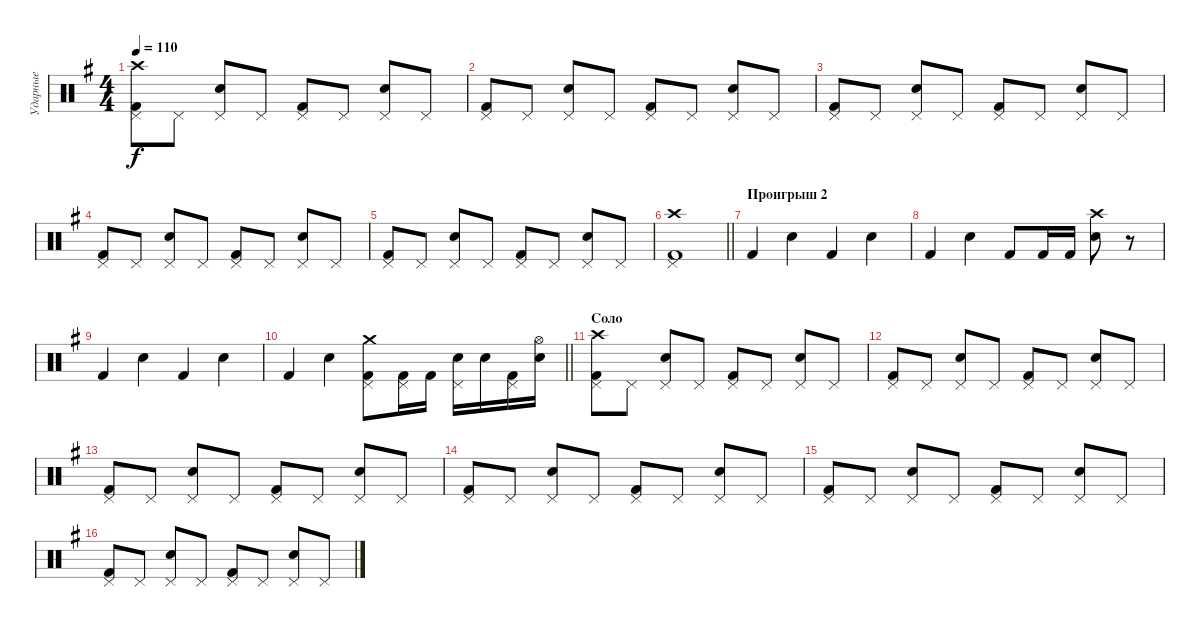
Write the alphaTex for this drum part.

\track ("Ударные" "Ударные") {instrument percussion}
\staff {score}
\articulation defaults
\ts (4 4)
\tempo 110
\clef neutral
\ks eminor
("Crash high (hit)" "Kick (hit) 2" "Pedal Hi-Hat (hit)").8{dy f} "Pedal Hi-Hat (hit)".8 ("Pedal Hi-Hat (hit)" "Snare (hit) 2").8 "Pedal Hi-Hat (hit)".8 ("Pedal Hi-Hat (hit)" "Kick (hit) 2").8 "Pedal Hi-Hat (hit)".8 ("Pedal Hi-Hat (hit)" "Snare (hit) 2").8 "Pedal Hi-Hat (hit)".8 |
("Kick (hit) 2" "Pedal Hi-Hat (hit)").8 "Pedal Hi-Hat (hit)".8 ("Snare (hit) 2" "Pedal Hi-Hat (hit)").8 "Pedal Hi-Hat (hit)".8 ("Kick (hit) 2" "Pedal Hi-Hat (hit)").8 "Pedal Hi-Hat (hit)".8 ("Snare (hit) 2" "Pedal Hi-Hat (hit)").8 "Pedal Hi-Hat (hit)".8 |
("Kick (hit) 2" "Pedal Hi-Hat (hit)").8 "Pedal Hi-Hat (hit)".8 ("Snare (hit) 2" "Pedal Hi-Hat (hit)").8 "Pedal Hi-Hat (hit)".8 ("Kick (hit) 2" "Pedal Hi-Hat (hit)").8 "Pedal Hi-Hat (hit)".8 ("Snare (hit) 2" "Pedal Hi-Hat (hit)").8 "Pedal Hi-Hat (hit)".8 |
("Kick (hit) 2" "Pedal Hi-Hat (hit)").8 "Pedal Hi-Hat (hit)".8 ("Snare (hit) 2" "Pedal Hi-Hat (hit)").8 "Pedal Hi-Hat (hit)".8 ("Kick (hit) 2" "Pedal Hi-Hat (hit)").8 "Pedal Hi-Hat (hit)".8 ("Snare (hit) 2" "Pedal Hi-Hat (hit)").8 "Pedal Hi-Hat (hit)".8 |
("Kick (hit) 2" "Pedal Hi-Hat (hit)").8 "Pedal Hi-Hat (hit)".8 ("Snare (hit) 2" "Pedal Hi-Hat (hit)").8 "Pedal Hi-Hat (hit)".8 ("Kick (hit) 2" "Pedal Hi-Hat (hit)").8 "Pedal Hi-Hat (hit)".8 ("Snare (hit) 2" "Pedal Hi-Hat (hit)").8 "Pedal Hi-Hat (hit)".8 |
\barLineRight lightlight
("Kick (hit) 2" "Crash high (hit)" "Pedal Hi-Hat (hit)").1 |
\section ("" "Проигрыш 2")
"Kick (hit) 2".4 "Snare (hit) 2".4 "Kick (hit) 2".4 "Snare (hit) 2".4 |
"Kick (hit) 2".4 "Snare (hit) 2".4 "Kick (hit) 2".8 "Kick (hit) 2".16 "Kick (hit) 2".16 ("Snare (hit) 2" "Crash high (hit)").8 r.8 |
"Kick (hit) 2".4 "Snare (hit) 2".4 "Kick (hit) 2".4 "Snare (hit) 2".4 |
\barLineRight lightlight "Kick (hit) 2".4 "Snare (hit) 2".4
("Kick (hit) 2" "Pedal Hi-Hat (hit)" "Crash medium (hit)").8 ("Kick (hit) 2" "Pedal Hi-Hat (hit)").16 "Kick (hit) 2".16 ("Snare (hit) 2" "Pedal Hi-Hat (hit)").16 "Snare (hit) 2".16 ("Kick (hit) 2" "Pedal Hi-Hat (hit)").16 ("Snare (hit) 2" "Hi-Hat (open)").16 |
\section ("" "Соло")
("Crash high (hit)" "Kick (hit) 2" "Pedal Hi-Hat (hit)").8 "Pedal Hi-Hat (hit)".8 ("Snare (hit) 2" "Pedal Hi-Hat (hit)").8 "Pedal Hi-Hat (hit)".8 ("Kick (hit) 2" "Pedal Hi-Hat (hit)").8 "Pedal Hi-Hat (hit)".8 ("Snare (hit) 2" "Pedal Hi-Hat (hit)").8 "Pedal Hi-Hat (hit)".8 |
("Kick (hit) 2" "Pedal Hi-Hat (hit)").8 "Pedal Hi-Hat (hit)".8 ("Snare (hit) 2" "Pedal Hi-Hat (hit)").8 "Pedal Hi-Hat (hit)".8 ("Kick (hit) 2" "Pedal Hi-Hat (hit)").8 "Pedal Hi-Hat (hit)".8 ("Snare (hit) 2" "Pedal Hi-Hat (hit)").8 "Pedal Hi-Hat (hit)".8 |
("Kick (hit) 2" "Pedal Hi-Hat (hit)").8 "Pedal Hi-Hat (hit)".8 ("Snare (hit) 2" "Pedal Hi-Hat (hit)").8 "Pedal Hi-Hat (hit)".8 ("Kick (hit) 2" "Pedal Hi-Hat (hit)").8 "Pedal Hi-Hat (hit)".8 ("Snare (hit) 2" "Pedal Hi-Hat (hit)").8 "Pedal Hi-Hat (hit)".8 |
("Kick (hit) 2" "Pedal Hi-Hat (hit)").8 "Pedal Hi-Hat (hit)".8 ("Snare (hit) 2" "Pedal Hi-Hat (hit)").8 "Pedal Hi-Hat (hit)".8 ("Kick (hit) 2" "Pedal Hi-Hat (hit)").8 "Pedal Hi-Hat (hit)".8 ("Snare (hit) 2" "Pedal Hi-Hat (hit)").8 "Pedal Hi-Hat (hit)".8 |
("Kick (hit) 2" "Pedal Hi-Hat (hit)").8 "Pedal Hi-Hat (hit)".8 ("Snare (hit) 2" "Pedal Hi-Hat (hit)").8 "Pedal Hi-Hat (hit)".8 ("Kick (hit) 2" "Pedal Hi-Hat (hit)").8 "Pedal Hi-Hat (hit)".8 ("Snare (hit) 2" "Pedal Hi-Hat (hit)").8 "Pedal Hi-Hat (hit)".8 |
("Kick (hit) 2" "Pedal Hi-Hat (hit)").8 "Pedal Hi-Hat (hit)".8 ("Snare (hit) 2" "Pedal Hi-Hat (hit)").8 "Pedal Hi-Hat (hit)".8 ("Kick (hit) 2" "Pedal Hi-Hat (hit)").8 "Pedal Hi-Hat (hit)".8 ("Snare (hit) 2" "Pedal Hi-Hat (hit)").8 "Pedal Hi-Hat (hit)".8
